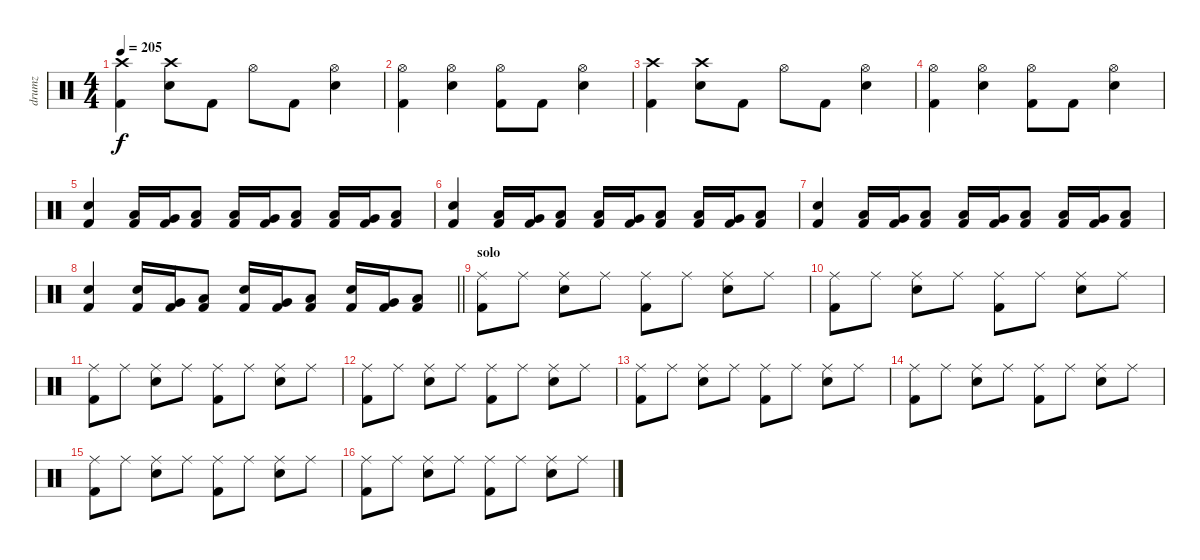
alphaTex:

\track ("drumz" "drumz") {instrument percussion}
\staff {score}
\articulation defaults
\ts (4 4)
\tempo 205
\clef neutral
\ks c
("Crash high (hit)" "Kick (hit) 2").4{dy f} ("Crash high (hit)" "Electric Snare (hit)").8 "Kick (hit) 2".8 "Hi-Hat (open)".8 "Kick (hit) 2".8 ("Hi-Hat (open)" "Electric Snare (hit)").4 |
("Hi-Hat (open)" "Kick (hit) 2").4 ("Hi-Hat (open)" "Electric Snare (hit)").4 ("Hi-Hat (open)" "Kick (hit) 2").8 "Kick (hit) 2".8 ("Hi-Hat (open)" "Electric Snare (hit)").4 |
("Crash high (hit)" "Kick (hit) 2").4 ("Crash high (hit)" "Electric Snare (hit)").8 "Kick (hit) 2".8 "Hi-Hat (open)".8 "Kick (hit) 2".8 ("Hi-Hat (open)" "Electric Snare (hit)").4 |
("Hi-Hat (open)" "Kick (hit) 2").4 ("Hi-Hat (open)" "Electric Snare (hit)").4 ("Hi-Hat (open)" "Kick (hit) 2").8 "Kick (hit) 2".8 ("Hi-Hat (open)" "Electric Snare (hit)").4 |
("Electric Snare (hit)" "Kick (hit) 2").4 ("Low Tom (hit)" "Kick (hit) 2").16 ("Very Low Tom (hit)" "Kick (hit) 2").16 ("Low Floor Tom (hit)" "Kick (hit) 2").8 ("Low Tom (hit)" "Kick (hit) 2").16 ("Very Low Tom (hit)" "Kick (hit) 2").16 ("Low Floor Tom (hit)" "Kick (hit) 2").8 ("Low Tom (hit)" "Kick (hit) 2").16 ("Very Low Tom (hit)" "Kick (hit) 2").16 ("Low Floor Tom (hit)" "Kick (hit) 2").8 |
("Electric Snare (hit)" "Kick (hit) 2").4 ("Low Tom (hit)" "Kick (hit) 2").16 ("Very Low Tom (hit)" "Kick (hit) 2").16 ("Low Floor Tom (hit)" "Kick (hit) 2").8 ("Low Tom (hit)" "Kick (hit) 2").16 ("Very Low Tom (hit)" "Kick (hit) 2").16 ("Low Floor Tom (hit)" "Kick (hit) 2").8 ("Low Tom (hit)" "Kick (hit) 2").16 ("Very Low Tom (hit)" "Kick (hit) 2").16 ("Low Floor Tom (hit)" "Kick (hit) 2").8 |
("Electric Snare (hit)" "Kick (hit) 2").4 ("Low Tom (hit)" "Kick (hit) 2").16 ("Very Low Tom (hit)" "Kick (hit) 2").16 ("Low Floor Tom (hit)" "Kick (hit) 2").8 ("Low Tom (hit)" "Kick (hit) 2").16 ("Very Low Tom (hit)" "Kick (hit) 2").16 ("Low Floor Tom (hit)" "Kick (hit) 2").8 ("Low Tom (hit)" "Kick (hit) 2").16 ("Very Low Tom (hit)" "Kick (hit) 2").16 ("Low Floor Tom (hit)" "Kick (hit) 2").8 |
\barLineRight lightlight
("Electric Snare (hit)" "Kick (hit) 2").4 ("Electric Snare (hit)" "Kick (hit) 2").16 ("Very Low Tom (hit)" "Kick (hit) 2").16 ("Low Floor Tom (hit)" "Kick (hit) 2").8 ("Electric Snare (hit)" "Kick (hit) 2").16 ("Very Low Tom (hit)" "Kick (hit) 2").16 ("Low Floor Tom (hit)" "Kick (hit) 2").8 ("Electric Snare (hit)" "Kick (hit) 2").16 ("Very Low Tom (hit)" "Kick (hit) 2").16 ("Low Floor Tom (hit)" "Kick (hit) 2").8 |
\section ("" "solo")
("Ride (middle)" "Kick (hit) 2").8 "Ride (middle)".8 ("Ride (middle)" "Electric Snare (hit)").8 "Ride (middle)".8 ("Ride (middle)" "Kick (hit) 2").8 "Ride (middle)".8 ("Ride (middle)" "Electric Snare (hit)").8 "Ride (middle)".8 |
("Ride (middle)" "Kick (hit) 2").8 "Ride (middle)".8 ("Ride (middle)" "Electric Snare (hit)").8 "Ride (middle)".8 ("Ride (middle)" "Kick (hit) 2").8 "Ride (middle)".8 ("Ride (middle)" "Electric Snare (hit)").8 "Ride (middle)".8 |
("Ride (middle)" "Kick (hit) 2").8 "Ride (middle)".8 ("Ride (middle)" "Electric Snare (hit)").8 "Ride (middle)".8 ("Ride (middle)" "Kick (hit) 2").8 "Ride (middle)".8 ("Ride (middle)" "Electric Snare (hit)").8 "Ride (middle)".8 |
("Ride (middle)" "Kick (hit) 2").8 "Ride (middle)".8 ("Ride (middle)" "Electric Snare (hit)").8 "Ride (middle)".8 ("Ride (middle)" "Kick (hit) 2").8 "Ride (middle)".8 ("Ride (middle)" "Electric Snare (hit)").8 "Ride (middle)".8 |
("Ride (middle)" "Kick (hit) 2").8 "Ride (middle)".8 ("Ride (middle)" "Electric Snare (hit)").8 "Ride (middle)".8 ("Ride (middle)" "Kick (hit) 2").8 "Ride (middle)".8 ("Ride (middle)" "Electric Snare (hit)").8 "Ride (middle)".8 |
("Ride (middle)" "Kick (hit) 2").8 "Ride (middle)".8 ("Ride (middle)" "Electric Snare (hit)").8 "Ride (middle)".8 ("Ride (middle)" "Kick (hit) 2").8 "Ride (middle)".8 ("Ride (middle)" "Electric Snare (hit)").8 "Ride (middle)".8 |
("Ride (middle)" "Kick (hit) 2").8 "Ride (middle)".8 ("Ride (middle)" "Electric Snare (hit)").8 "Ride (middle)".8 ("Ride (middle)" "Kick (hit) 2").8 "Ride (middle)".8 ("Ride (middle)" "Electric Snare (hit)").8 "Ride (middle)".8 |
("Ride (middle)" "Kick (hit) 2").8 "Ride (middle)".8 ("Ride (middle)" "Electric Snare (hit)").8 "Ride (middle)".8 ("Ride (middle)" "Kick (hit) 2").8 "Ride (middle)".8 ("Ride (middle)" "Electric Snare (hit)").8 "Ride (middle)".8
